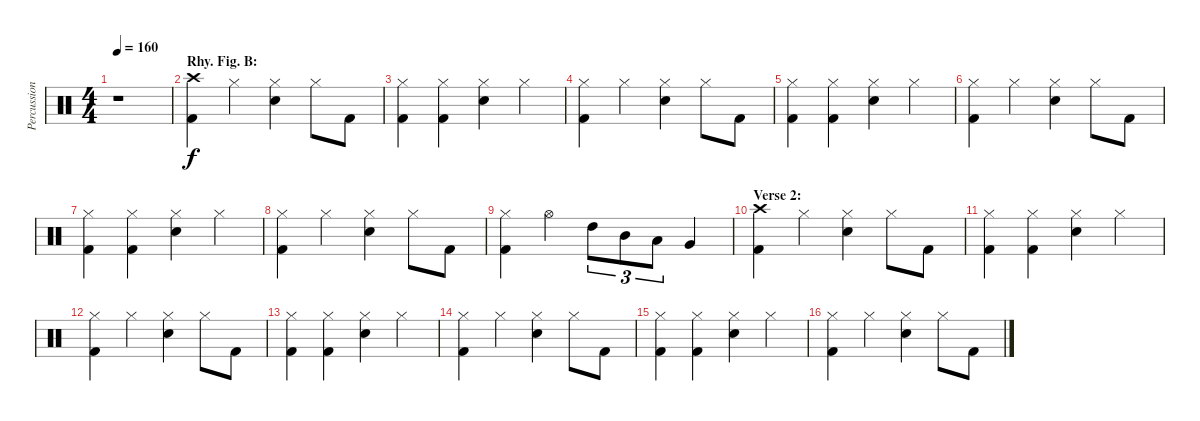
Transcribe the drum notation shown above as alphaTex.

\track ("Percussion" "Percussion") {instrument percussion}
\staff {score}
\articulation defaults
\ts (4 4)
\tempo 160
\clef neutral
\ks c
r.1{dy f} |
\section ("" "Rhy. Fig. B:")
("Crash high (hit)" "Kick (hit) 2").4 "Hi-Hat (closed)".4 ("Hi-Hat (closed)" "Electric Snare (hit)").4 "Hi-Hat (closed)".8 "Kick (hit) 2".8 |
("Hi-Hat (closed)" "Kick (hit) 2").4 ("Hi-Hat (closed)" "Kick (hit) 2").4 ("Hi-Hat (closed)" "Electric Snare (hit)").4 "Hi-Hat (closed)".4 |
("Hi-Hat (closed)" "Kick (hit) 2").4 "Hi-Hat (closed)".4 ("Hi-Hat (closed)" "Electric Snare (hit)").4 "Hi-Hat (closed)".8 "Kick (hit) 2".8 |
("Hi-Hat (closed)" "Kick (hit) 2").4 ("Hi-Hat (closed)" "Kick (hit) 2").4 ("Hi-Hat (closed)" "Electric Snare (hit)").4 "Hi-Hat (closed)".4 |
("Hi-Hat (closed)" "Kick (hit) 2").4 "Hi-Hat (closed)".4 ("Hi-Hat (closed)" "Electric Snare (hit)").4 "Hi-Hat (closed)".8 "Kick (hit) 2".8 |
("Hi-Hat (closed)" "Kick (hit) 2").4 ("Hi-Hat (closed)" "Kick (hit) 2").4 ("Hi-Hat (closed)" "Electric Snare (hit)").4 "Hi-Hat (closed)".4 |
("Hi-Hat (closed)" "Kick (hit) 2").4 "Hi-Hat (closed)".4 ("Hi-Hat (closed)" "Electric Snare (hit)").4 "Hi-Hat (closed)".8 "Kick (hit) 2".8 |
("Hi-Hat (closed)" "Kick (hit) 2").4 "Hi-Hat (open)".4 "High Tom (hit)".8{tu (3 2)} "Mid Tom (hit)".8{tu (3 2)} "Low Tom (hit)".8{tu (3 2)} "Very Low Tom (hit)".4 |
\section ("" "Verse 2:")
("Crash high (hit)" "Kick (hit) 2").4 "Hi-Hat (closed)".4 ("Hi-Hat (closed)" "Electric Snare (hit)").4 "Hi-Hat (closed)".8 "Kick (hit) 2".8 |
("Hi-Hat (closed)" "Kick (hit) 2").4 ("Hi-Hat (closed)" "Kick (hit) 2").4 ("Hi-Hat (closed)" "Electric Snare (hit)").4 "Hi-Hat (closed)".4 |
("Hi-Hat (closed)" "Kick (hit) 2").4 "Hi-Hat (closed)".4 ("Hi-Hat (closed)" "Electric Snare (hit)").4 "Hi-Hat (closed)".8 "Kick (hit) 2".8 |
("Hi-Hat (closed)" "Kick (hit) 2").4 ("Hi-Hat (closed)" "Kick (hit) 2").4 ("Hi-Hat (closed)" "Electric Snare (hit)").4 "Hi-Hat (closed)".4 |
("Hi-Hat (closed)" "Kick (hit) 2").4 "Hi-Hat (closed)".4 ("Hi-Hat (closed)" "Electric Snare (hit)").4 "Hi-Hat (closed)".8 "Kick (hit) 2".8 |
("Hi-Hat (closed)" "Kick (hit) 2").4 ("Hi-Hat (closed)" "Kick (hit) 2").4 ("Hi-Hat (closed)" "Electric Snare (hit)").4 "Hi-Hat (closed)".4 |
("Hi-Hat (closed)" "Kick (hit) 2").4 "Hi-Hat (closed)".4 ("Hi-Hat (closed)" "Electric Snare (hit)").4 "Hi-Hat (closed)".8 "Kick (hit) 2".8
